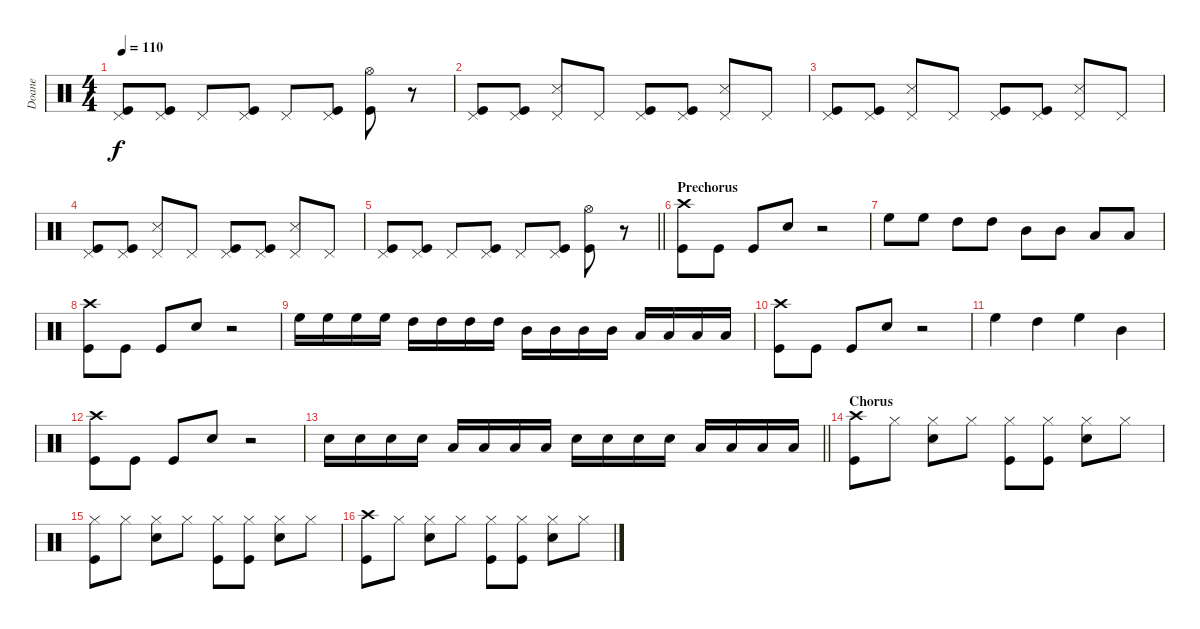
\track ("Doane" "Doane") {instrument percussion}
\staff {score}
\articulation defaults
\ts (4 4)
\tempo 110
\clef neutral
\ks c
("Pedal Hi-Hat (hit)" "Kick (hit)").8{dy f} ("Pedal Hi-Hat (hit)" "Kick (hit)").8 "Pedal Hi-Hat (hit)".8 ("Pedal Hi-Hat (hit)" "Kick (hit)").8 "Pedal Hi-Hat (hit)".8 ("Pedal Hi-Hat (hit)" "Kick (hit)").8 ("Hi-Hat (open)" "Kick (hit)").8 r.8 |
("Pedal Hi-Hat (hit)" "Kick (hit)").8 ("Pedal Hi-Hat (hit)" "Kick (hit)").8 ("Pedal Hi-Hat (hit)" "Snare (side stick) 3").8 "Pedal Hi-Hat (hit)".8 ("Pedal Hi-Hat (hit)" "Kick (hit)").8 ("Pedal Hi-Hat (hit)" "Kick (hit)").8 ("Pedal Hi-Hat (hit)" "Snare (side stick) 3").8 "Pedal Hi-Hat (hit)".8 |
("Pedal Hi-Hat (hit)" "Kick (hit)").8 ("Pedal Hi-Hat (hit)" "Kick (hit)").8 ("Pedal Hi-Hat (hit)" "Snare (side stick) 3").8 "Pedal Hi-Hat (hit)".8 ("Pedal Hi-Hat (hit)" "Kick (hit)").8 ("Pedal Hi-Hat (hit)" "Kick (hit)").8 ("Pedal Hi-Hat (hit)" "Snare (side stick) 3").8 "Pedal Hi-Hat (hit)".8 |
("Pedal Hi-Hat (hit)" "Kick (hit)").8 ("Pedal Hi-Hat (hit)" "Kick (hit)").8 ("Pedal Hi-Hat (hit)" "Snare (side stick) 3").8 "Pedal Hi-Hat (hit)".8 ("Pedal Hi-Hat (hit)" "Kick (hit)").8 ("Pedal Hi-Hat (hit)" "Kick (hit)").8 ("Pedal Hi-Hat (hit)" "Snare (side stick) 3").8 "Pedal Hi-Hat (hit)".8 |
\barLineRight lightlight
("Pedal Hi-Hat (hit)" "Kick (hit)").8 ("Pedal Hi-Hat (hit)" "Kick (hit)").8 "Pedal Hi-Hat (hit)".8 ("Pedal Hi-Hat (hit)" "Kick (hit)").8 "Pedal Hi-Hat (hit)".8 ("Pedal Hi-Hat (hit)" "Kick (hit)").8 ("Hi-Hat (open)" "Kick (hit)").8 r.8 |
\section ("" "Prechorus")
("Crash high (hit)" "Kick (hit)").8 "Kick (hit)".8 "Kick (hit)".8 "Snare (hit) 2".8 r.2 |
"High Floor Tom (hit)".8 "High Floor Tom (hit)".8 "High Tom (hit)".8 "High Tom (hit)".8 "Mid Tom (hit)".8 "Mid Tom (hit)".8 "Low Tom (hit)".8 "Low Tom (hit)".8 |
("Crash high (hit)" "Kick (hit)").8 "Kick (hit)".8 "Kick (hit)".8 "Snare (hit) 2".8 r.2 |
"High Floor Tom (hit)".16 "High Floor Tom (hit)".16 "High Floor Tom (hit)".16 "High Floor Tom (hit)".16 "High Tom (hit)".16 "High Tom (hit)".16 "High Tom (hit)".16 "High Tom (hit)".16 "Mid Tom (hit)".16 "Mid Tom (hit)".16 "Mid Tom (hit)".16 "Mid Tom (hit)".16 "Low Tom (hit)".16 "Low Tom (hit)".16 "Low Tom (hit)".16 "Low Tom (hit)".16 |
("Crash high (hit)" "Kick (hit)").8 "Kick (hit)".8 "Kick (hit)".8 "Snare (hit) 2".8 r.2 |
"High Floor Tom (hit)".4 "High Tom (hit)".4 "High Floor Tom (hit)".4 "Mid Tom (hit)".4 |
("Crash high (hit)" "Kick (hit)").8 "Kick (hit)".8 "Kick (hit)".8 "Snare (hit) 2".8 r.2 |
\barLineRight lightlight "Snare (hit) 2".16 "Snare (hit) 2".16 "Snare (hit) 2".16 "Snare (hit) 2".16 "Low Tom (hit)".16 "Low Tom (hit)".16 "Low Tom (hit)".16 "Low Tom (hit)".16 "Snare (hit) 2".16 "Snare (hit) 2".16 "Snare (hit) 2".16 "Snare (hit) 2".16 "Low Tom (hit)".16 "Low Tom (hit)".16 "Low Tom (hit)".16 "Low Tom (hit)".16
|
\section ("" "Chorus")
("Crash high (hit)" "Kick (hit)").8 "Hi-Hat (closed)".8 ("Hi-Hat (closed)" "Snare (hit) 2").8 "Hi-Hat (closed)".8 ("Hi-Hat (closed)" "Kick (hit)").8 ("Hi-Hat (closed)" "Kick (hit)").8 ("Hi-Hat (closed)" "Snare (hit) 2").8 "Hi-Hat (closed)".8 |
("Hi-Hat (closed)" "Kick (hit)").8 "Hi-Hat (closed)".8 ("Hi-Hat (closed)" "Snare (hit) 2").8 "Hi-Hat (closed)".8 ("Hi-Hat (closed)" "Kick (hit)").8 ("Hi-Hat (closed)" "Kick (hit)").8 ("Hi-Hat (closed)" "Snare (hit) 2").8 "Hi-Hat (closed)".8 |
("Crash high (hit)" "Kick (hit)").8 "Hi-Hat (closed)".8 ("Hi-Hat (closed)" "Snare (hit) 2").8 "Hi-Hat (closed)".8 ("Hi-Hat (closed)" "Kick (hit)").8 ("Hi-Hat (closed)" "Kick (hit)").8 ("Hi-Hat (closed)" "Snare (hit) 2").8 "Hi-Hat (closed)".8
